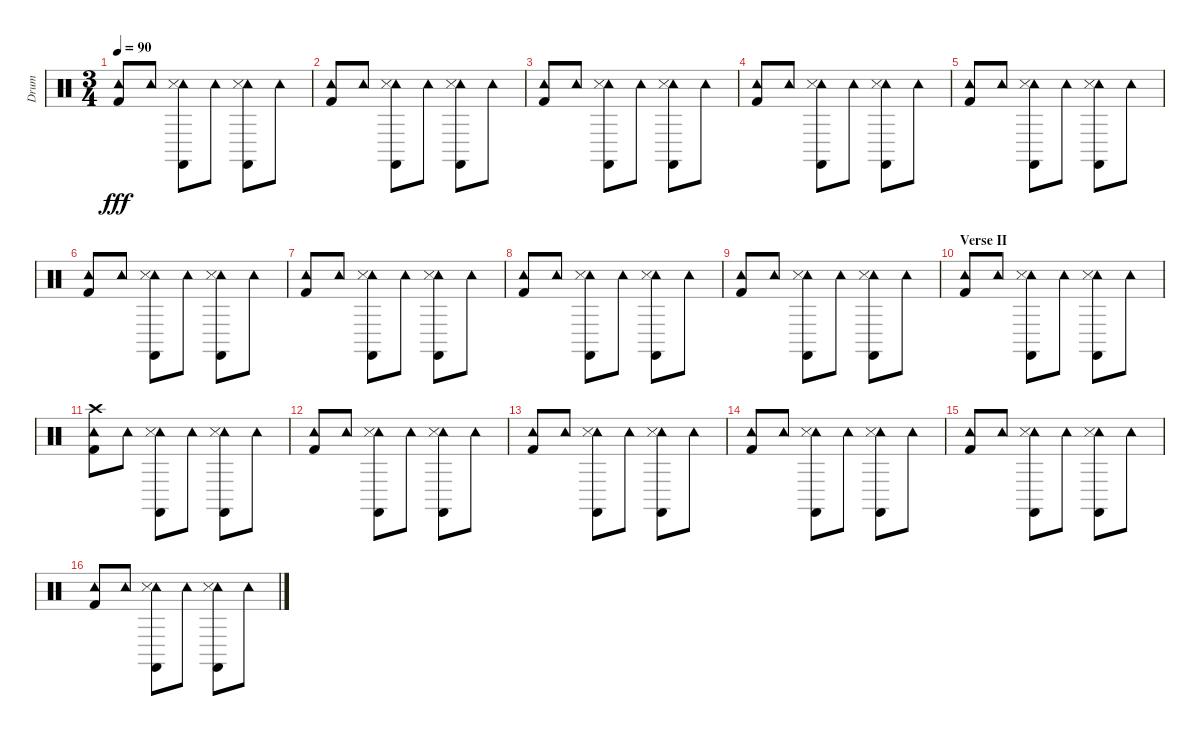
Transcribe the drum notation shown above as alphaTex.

\track ("Drum" "Drum") {instrument percussion}
\staff {score}
\articulation defaults
\ts (3 4)
\tempo 90
\clef neutral
\ks c
("Kick (hit) 2" "Tambourine (hit)").8{dy fff} "Tambourine (hit)".8 ("Castanets (hit)" "Tambourine (hit)" "Snare (side stick) 3").8 "Tambourine (hit)".8 ("Castanets (hit)" "Tambourine (hit)" "Snare (side stick) 3").8 "Tambourine (hit)".8 |
("Kick (hit) 2" "Tambourine (hit)").8 "Tambourine (hit)".8 ("Castanets (hit)" "Tambourine (hit)" "Snare (side stick) 3").8 "Tambourine (hit)".8 ("Castanets (hit)" "Tambourine (hit)" "Snare (side stick) 3").8 "Tambourine (hit)".8 |
("Kick (hit) 2" "Tambourine (hit)").8 "Tambourine (hit)".8 ("Castanets (hit)" "Tambourine (hit)" "Snare (side stick) 3").8 "Tambourine (hit)".8 ("Castanets (hit)" "Tambourine (hit)" "Snare (side stick) 3").8 "Tambourine (hit)".8 |
("Kick (hit) 2" "Tambourine (hit)").8 "Tambourine (hit)".8 ("Castanets (hit)" "Tambourine (hit)" "Snare (side stick) 3").8 "Tambourine (hit)".8 ("Castanets (hit)" "Tambourine (hit)" "Snare (side stick) 3").8 "Tambourine (hit)".8 |
("Kick (hit) 2" "Tambourine (hit)").8 "Tambourine (hit)".8 ("Castanets (hit)" "Tambourine (hit)" "Snare (side stick) 3").8 "Tambourine (hit)".8 ("Castanets (hit)" "Tambourine (hit)" "Snare (side stick) 3").8 "Tambourine (hit)".8 |
("Kick (hit) 2" "Tambourine (hit)").8 "Tambourine (hit)".8 ("Castanets (hit)" "Tambourine (hit)" "Snare (side stick) 3").8 "Tambourine (hit)".8 ("Castanets (hit)" "Tambourine (hit)" "Snare (side stick) 3").8 "Tambourine (hit)".8 |
("Kick (hit) 2" "Tambourine (hit)").8 "Tambourine (hit)".8 ("Castanets (hit)" "Tambourine (hit)" "Snare (side stick) 3").8 "Tambourine (hit)".8 ("Castanets (hit)" "Tambourine (hit)" "Snare (side stick) 3").8 "Tambourine (hit)".8 |
("Kick (hit) 2" "Tambourine (hit)").8 "Tambourine (hit)".8 ("Castanets (hit)" "Tambourine (hit)" "Snare (side stick) 3").8 "Tambourine (hit)".8 ("Castanets (hit)" "Tambourine (hit)" "Snare (side stick) 3").8 "Tambourine (hit)".8 |
("Kick (hit) 2" "Tambourine (hit)").8 "Tambourine (hit)".8 ("Castanets (hit)" "Tambourine (hit)" "Snare (side stick) 3").8 "Tambourine (hit)".8 ("Castanets (hit)" "Tambourine (hit)" "Snare (side stick) 3").8 "Tambourine (hit)".8 |
\section ("" "Verse II")
("Kick (hit) 2" "Tambourine (hit)").8 "Tambourine (hit)".8 ("Castanets (hit)" "Tambourine (hit)" "Snare (side stick) 3").8 "Tambourine (hit)".8 ("Castanets (hit)" "Tambourine (hit)" "Snare (side stick) 3").8 "Tambourine (hit)".8 |
("Kick (hit) 2" "Crash high (hit)" "Tambourine (hit)").8 "Tambourine (hit)".8 ("Castanets (hit)" "Tambourine (hit)" "Snare (side stick) 3").8 "Tambourine (hit)".8 ("Castanets (hit)" "Tambourine (hit)" "Snare (side stick) 3").8 "Tambourine (hit)".8 |
("Kick (hit) 2" "Tambourine (hit)").8 "Tambourine (hit)".8 ("Castanets (hit)" "Tambourine (hit)" "Snare (side stick) 3").8 "Tambourine (hit)".8 ("Castanets (hit)" "Tambourine (hit)" "Snare (side stick) 3").8 "Tambourine (hit)".8 |
("Kick (hit) 2" "Tambourine (hit)").8 "Tambourine (hit)".8 ("Castanets (hit)" "Tambourine (hit)" "Snare (side stick) 3").8 "Tambourine (hit)".8 ("Castanets (hit)" "Tambourine (hit)" "Snare (side stick) 3").8 "Tambourine (hit)".8 |
("Kick (hit) 2" "Tambourine (hit)").8 "Tambourine (hit)".8 ("Castanets (hit)" "Tambourine (hit)" "Snare (side stick) 3").8 "Tambourine (hit)".8 ("Castanets (hit)" "Tambourine (hit)" "Snare (side stick) 3").8 "Tambourine (hit)".8 |
("Kick (hit) 2" "Tambourine (hit)").8 "Tambourine (hit)".8 ("Castanets (hit)" "Tambourine (hit)" "Snare (side stick) 3").8 "Tambourine (hit)".8 ("Castanets (hit)" "Tambourine (hit)" "Snare (side stick) 3").8 "Tambourine (hit)".8 |
("Kick (hit) 2" "Tambourine (hit)").8 "Tambourine (hit)".8 ("Castanets (hit)" "Tambourine (hit)" "Snare (side stick) 3").8 "Tambourine (hit)".8 ("Castanets (hit)" "Tambourine (hit)" "Snare (side stick) 3").8 "Tambourine (hit)".8
